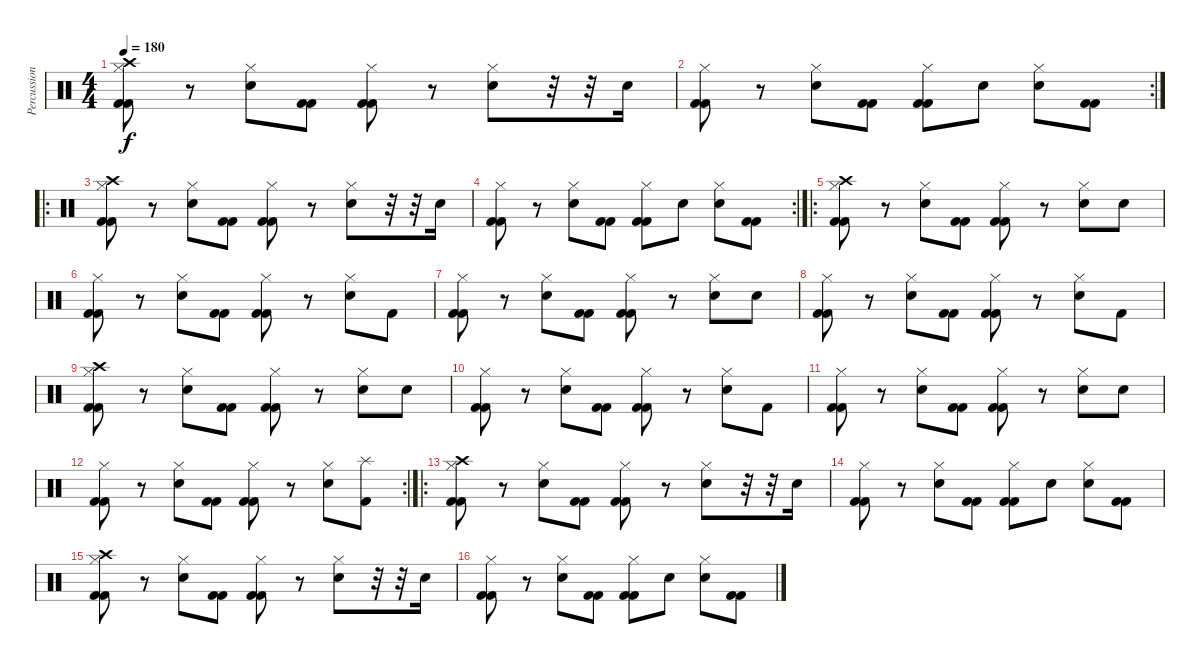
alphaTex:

\track ("Percussion" "Percussion") {instrument percussion}
\staff {score}
\articulation defaults
\ts (4 4)
\tempo 180
\clef neutral
\ks c
("Hi-Hat (closed)" "Crash high (hit)" "Kick (hit) 2" "Kick (hit) 2").8{dy f} r.8 ("Hi-Hat (closed)" "Snare (hit) 2").8 ("Kick (hit) 2" "Kick (hit) 2").8 ("Hi-Hat (closed)" "Kick (hit) 2" "Kick (hit) 2").8 r.8 ("Hi-Hat (closed)" "Snare (hit) 2").8 r.32 r.32 "Snare (hit) 2".16 |
\rc 2
("Hi-Hat (closed)" "Kick (hit) 2" "Kick (hit) 2").8 r.8 ("Hi-Hat (closed)" "Snare (hit) 2").8 ("Kick (hit) 2" "Kick (hit) 2").8 ("Hi-Hat (closed)" "Kick (hit) 2" "Kick (hit) 2").8 "Snare (hit) 2".8 ("Hi-Hat (closed)" "Snare (hit) 2").8 ("Kick (hit) 2" "Kick (hit) 2").8 |
\ro
("Hi-Hat (closed)" "Crash high (hit)" "Kick (hit) 2" "Kick (hit) 2").8 r.8 ("Hi-Hat (closed)" "Snare (hit) 2").8 ("Kick (hit) 2" "Kick (hit) 2").8 ("Hi-Hat (closed)" "Kick (hit) 2" "Kick (hit) 2").8 r.8 ("Hi-Hat (closed)" "Snare (hit) 2").8 r.32 r.32 "Snare (hit) 2".16 |
\rc 2
("Hi-Hat (closed)" "Kick (hit) 2" "Kick (hit) 2").8 r.8 ("Hi-Hat (closed)" "Snare (hit) 2").8 ("Kick (hit) 2" "Kick (hit) 2").8 ("Hi-Hat (closed)" "Kick (hit) 2" "Kick (hit) 2").8 "Snare (hit) 2".8 ("Hi-Hat (closed)" "Snare (hit) 2").8 ("Kick (hit) 2" "Kick (hit) 2").8 |
\ro
("Hi-Hat (closed)" "Crash high (hit)" "Kick (hit) 2" "Kick (hit) 2").8 r.8 ("Hi-Hat (closed)" "Snare (hit) 2").8 ("Kick (hit) 2" "Kick (hit) 2").8 ("Hi-Hat (closed)" "Kick (hit) 2" "Kick (hit) 2").8 r.8 ("Hi-Hat (closed)" "Snare (hit) 2").8 "Snare (hit) 2".8 |
("Hi-Hat (closed)" "Kick (hit) 2" "Kick (hit) 2").8 r.8 ("Hi-Hat (closed)" "Snare (hit) 2").8 ("Kick (hit) 2" "Kick (hit) 2").8 ("Hi-Hat (closed)" "Kick (hit) 2" "Kick (hit) 2").8 r.8 ("Hi-Hat (closed)" "Snare (hit) 2").8 "Kick (hit) 2".8 |
("Hi-Hat (closed)" "Kick (hit) 2" "Kick (hit) 2").8 r.8 ("Hi-Hat (closed)" "Snare (hit) 2").8 ("Kick (hit) 2" "Kick (hit) 2").8 ("Hi-Hat (closed)" "Kick (hit) 2" "Kick (hit) 2").8 r.8 ("Hi-Hat (closed)" "Snare (hit) 2").8 "Snare (hit) 2".8 |
("Hi-Hat (closed)" "Kick (hit) 2" "Kick (hit) 2").8 r.8 ("Hi-Hat (closed)" "Snare (hit) 2").8 ("Kick (hit) 2" "Kick (hit) 2").8 ("Hi-Hat (closed)" "Kick (hit) 2" "Kick (hit) 2").8 r.8 ("Hi-Hat (closed)" "Snare (hit) 2").8 "Kick (hit) 2".8 |
("Hi-Hat (closed)" "Crash high (hit)" "Kick (hit) 2" "Kick (hit) 2").8 r.8 ("Hi-Hat (closed)" "Snare (hit) 2").8 ("Kick (hit) 2" "Kick (hit) 2").8 ("Hi-Hat (closed)" "Kick (hit) 2" "Kick (hit) 2").8 r.8 ("Hi-Hat (closed)" "Snare (hit) 2").8 "Snare (hit) 2".8 |
("Hi-Hat (closed)" "Kick (hit) 2" "Kick (hit) 2").8 r.8 ("Hi-Hat (closed)" "Snare (hit) 2").8 ("Kick (hit) 2" "Kick (hit) 2").8 ("Hi-Hat (closed)" "Kick (hit) 2" "Kick (hit) 2").8 r.8 ("Hi-Hat (closed)" "Snare (hit) 2").8 "Kick (hit) 2".8 |
("Hi-Hat (closed)" "Kick (hit) 2" "Kick (hit) 2").8 r.8 ("Hi-Hat (closed)" "Snare (hit) 2").8 ("Kick (hit) 2" "Kick (hit) 2").8 ("Hi-Hat (closed)" "Kick (hit) 2" "Kick (hit) 2").8 r.8 ("Hi-Hat (closed)" "Snare (hit) 2").8 "Snare (hit) 2".8 |
\rc 2
("Hi-Hat (closed)" "Kick (hit) 2" "Kick (hit) 2").8 r.8 ("Hi-Hat (closed)" "Snare (hit) 2").8 ("Kick (hit) 2" "Kick (hit) 2").8 ("Hi-Hat (closed)" "Kick (hit) 2" "Kick (hit) 2").8 r.8 ("Hi-Hat (closed)" "Snare (hit) 2").8 ("Splash (hit)" "Kick (hit) 2").8 |
\ro
("Hi-Hat (closed)" "Crash high (hit)" "Kick (hit) 2" "Kick (hit) 2").8 r.8 ("Hi-Hat (closed)" "Snare (hit) 2").8 ("Kick (hit) 2" "Kick (hit) 2").8 ("Hi-Hat (closed)" "Kick (hit) 2" "Kick (hit) 2").8 r.8 ("Hi-Hat (closed)" "Snare (hit) 2").8 r.32 r.32 "Snare (hit) 2".16 |
("Hi-Hat (closed)" "Kick (hit) 2" "Kick (hit) 2").8 r.8 ("Hi-Hat (closed)" "Snare (hit) 2").8 ("Kick (hit) 2" "Kick (hit) 2").8 ("Hi-Hat (closed)" "Kick (hit) 2" "Kick (hit) 2").8 "Snare (hit) 2".8 ("Hi-Hat (closed)" "Snare (hit) 2").8 ("Kick (hit) 2" "Kick (hit) 2").8 |
("Hi-Hat (closed)" "Crash high (hit)" "Kick (hit) 2" "Kick (hit) 2").8 r.8 ("Hi-Hat (closed)" "Snare (hit) 2").8 ("Kick (hit) 2" "Kick (hit) 2").8 ("Hi-Hat (closed)" "Kick (hit) 2" "Kick (hit) 2").8 r.8 ("Hi-Hat (closed)" "Snare (hit) 2").8 r.32 r.32 "Snare (hit) 2".16 |
("Hi-Hat (closed)" "Kick (hit) 2" "Kick (hit) 2").8 r.8 ("Hi-Hat (closed)" "Snare (hit) 2").8 ("Kick (hit) 2" "Kick (hit) 2").8 ("Hi-Hat (closed)" "Kick (hit) 2" "Kick (hit) 2").8 "Snare (hit) 2".8 ("Hi-Hat (closed)" "Snare (hit) 2").8 ("Kick (hit) 2" "Kick (hit) 2").8
